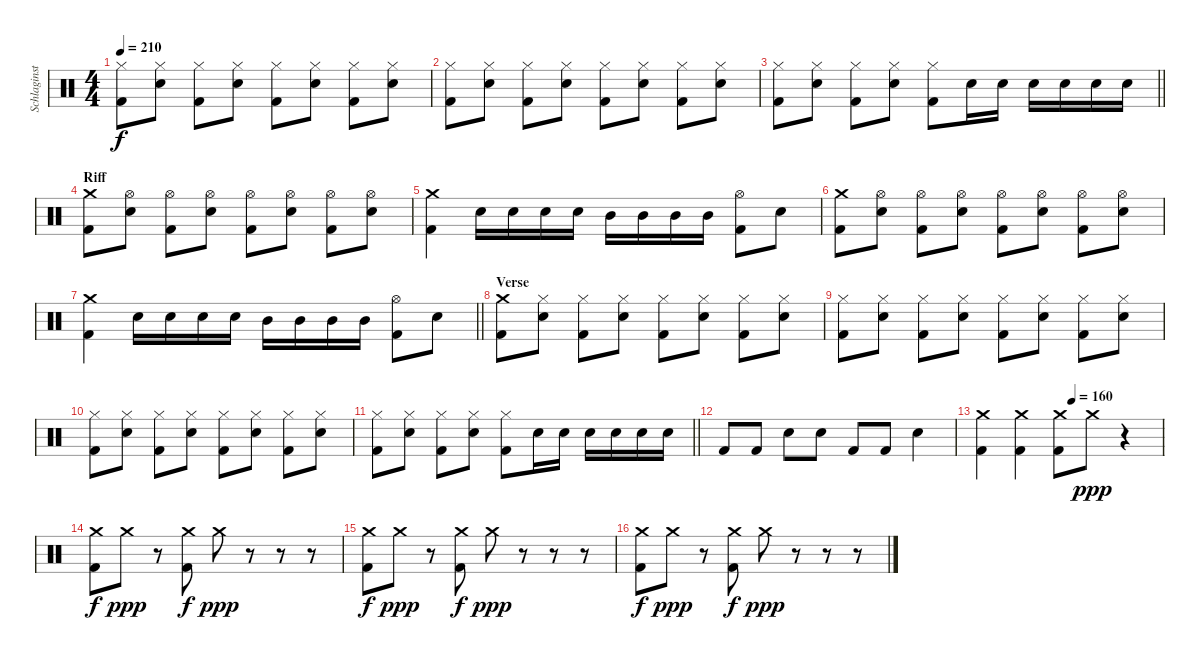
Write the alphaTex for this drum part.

\track ("Schlaginstrumente - Auswahl" "Schlaginst") {instrument percussion}
\staff {score}
\articulation defaults
\ts (4 4)
\tempo 210
\clef neutral
\ks c
("Hi-Hat (closed)" "Kick (hit) 2").8{dy f} ("Hi-Hat (closed)" "Electric Snare (hit)").8 ("Hi-Hat (closed)" "Kick (hit) 2").8 ("Hi-Hat (closed)" "Electric Snare (hit)").8 ("Hi-Hat (closed)" "Kick (hit) 2").8 ("Hi-Hat (closed)" "Electric Snare (hit)").8 ("Hi-Hat (closed)" "Kick (hit) 2").8 ("Hi-Hat (closed)" "Electric Snare (hit)").8 |
("Hi-Hat (closed)" "Kick (hit) 2").8 ("Hi-Hat (closed)" "Electric Snare (hit)").8 ("Hi-Hat (closed)" "Kick (hit) 2").8 ("Hi-Hat (closed)" "Electric Snare (hit)").8 ("Hi-Hat (closed)" "Kick (hit) 2").8 ("Hi-Hat (closed)" "Electric Snare (hit)").8 ("Hi-Hat (closed)" "Kick (hit) 2").8 ("Hi-Hat (closed)" "Electric Snare (hit)").8 |
\barLineRight lightlight
("Hi-Hat (closed)" "Kick (hit) 2").8 ("Hi-Hat (closed)" "Electric Snare (hit)").8 ("Hi-Hat (closed)" "Kick (hit) 2").8 ("Hi-Hat (closed)" "Electric Snare (hit)").8 ("Hi-Hat (closed)" "Kick (hit) 2").8 "Electric Snare (hit)".16 "Electric Snare (hit)".16 "Electric Snare (hit)".16 "Electric Snare (hit)".16 "Electric Snare (hit)".16 "Electric Snare (hit)".16 |
\section ("" "Riff")
("Crash medium (hit)" "Kick (hit) 2").8 ("Hi-Hat (open)" "Electric Snare (hit)").8 ("Hi-Hat (open)" "Kick (hit) 2").8 ("Hi-Hat (open)" "Electric Snare (hit)").8 ("Hi-Hat (open)" "Kick (hit) 2").8 ("Hi-Hat (open)" "Electric Snare (hit)").8 ("Hi-Hat (open)" "Kick (hit) 2").8 ("Hi-Hat (open)" "Electric Snare (hit)").8 |
("Crash medium (hit)" "Kick (hit) 2").4 "Electric Snare (hit)".16 "Electric Snare (hit)".16 "Electric Snare (hit)".16 "Electric Snare (hit)".16 "Mid Tom (hit)".16 "Mid Tom (hit)".16 "Mid Tom (hit)".16 "Mid Tom (hit)".16 ("Hi-Hat (open)" "Kick (hit) 2").8 "Electric Snare (hit)".8 |
("Crash medium (hit)" "Kick (hit) 2").8 ("Hi-Hat (open)" "Electric Snare (hit)").8 ("Hi-Hat (open)" "Kick (hit) 2").8 ("Hi-Hat (open)" "Electric Snare (hit)").8 ("Hi-Hat (open)" "Kick (hit) 2").8 ("Hi-Hat (open)" "Electric Snare (hit)").8 ("Hi-Hat (open)" "Kick (hit) 2").8 ("Hi-Hat (open)" "Electric Snare (hit)").8 |
\barLineRight lightlight
("Crash medium (hit)" "Kick (hit) 2").4 "Electric Snare (hit)".16 "Electric Snare (hit)".16 "Electric Snare (hit)".16 "Electric Snare (hit)".16 "Mid Tom (hit)".16 "Mid Tom (hit)".16 "Mid Tom (hit)".16 "Mid Tom (hit)".16 ("Hi-Hat (open)" "Kick (hit) 2").8 "Electric Snare (hit)".8 |
\section ("" "Verse")
("Crash medium (hit)" "Kick (hit) 2").8 ("Hi-Hat (closed)" "Electric Snare (hit)").8 ("Hi-Hat (closed)" "Kick (hit) 2").8 ("Hi-Hat (closed)" "Electric Snare (hit)").8 ("Hi-Hat (closed)" "Kick (hit) 2").8 ("Hi-Hat (closed)" "Electric Snare (hit)").8 ("Hi-Hat (closed)" "Kick (hit) 2").8 ("Hi-Hat (closed)" "Electric Snare (hit)").8 |
("Hi-Hat (closed)" "Kick (hit) 2").8 ("Hi-Hat (closed)" "Electric Snare (hit)").8 ("Hi-Hat (closed)" "Kick (hit) 2").8 ("Hi-Hat (closed)" "Electric Snare (hit)").8 ("Hi-Hat (closed)" "Kick (hit) 2").8 ("Hi-Hat (closed)" "Electric Snare (hit)").8 ("Hi-Hat (closed)" "Kick (hit) 2").8 ("Hi-Hat (closed)" "Electric Snare (hit)").8 |
("Hi-Hat (closed)" "Kick (hit) 2").8 ("Hi-Hat (closed)" "Electric Snare (hit)").8 ("Hi-Hat (closed)" "Kick (hit) 2").8 ("Hi-Hat (closed)" "Electric Snare (hit)").8 ("Hi-Hat (closed)" "Kick (hit) 2").8 ("Hi-Hat (closed)" "Electric Snare (hit)").8 ("Hi-Hat (closed)" "Kick (hit) 2").8 ("Hi-Hat (closed)" "Electric Snare (hit)").8 |
\barLineRight lightlight
("Hi-Hat (closed)" "Kick (hit) 2").8 ("Hi-Hat (closed)" "Electric Snare (hit)").8 ("Hi-Hat (closed)" "Kick (hit) 2").8 ("Hi-Hat (closed)" "Electric Snare (hit)").8 ("Hi-Hat (closed)" "Kick (hit) 2").8 "Electric Snare (hit)".16 "Electric Snare (hit)".16 "Electric Snare (hit)".16 "Electric Snare (hit)".16 "Electric Snare (hit)".16 "Electric Snare (hit)".16 |
"Kick (hit) 2".8 "Kick (hit) 2".8 "Electric Snare (hit)".8 "Electric Snare (hit)".8 "Kick (hit) 2".8 "Kick (hit) 2".8 "Electric Snare (hit)".4 |
\tempo (160 0.5)
("Crash medium (hit)" "Kick (hit) 2").4 ("Crash medium (hit)" "Kick (hit) 2").4 ("Crash medium (hit)" "Kick (hit) 2").8 "Crash medium (hit)".8{dy ppp} r.4 |
("Crash medium (hit)" "Kick (hit) 2").8{dy f} "Crash medium (hit)".8{dy ppp} r.8 ("Crash medium (hit)" "Kick (hit) 2").8{dy f} "Crash medium (hit)".8{dy ppp} r.8 r.8 r.8 |
("Crash medium (hit)" "Kick (hit) 2").8{dy f} "Crash medium (hit)".8{dy ppp} r.8 ("Crash medium (hit)" "Kick (hit) 2").8{dy f} "Crash medium (hit)".8{dy ppp} r.8 r.8 r.8 |
("Crash medium (hit)" "Kick (hit) 2").8{dy f} "Crash medium (hit)".8{dy ppp} r.8 ("Crash medium (hit)" "Kick (hit) 2").8{dy f} "Crash medium (hit)".8{dy ppp} r.8 r.8 r.8
